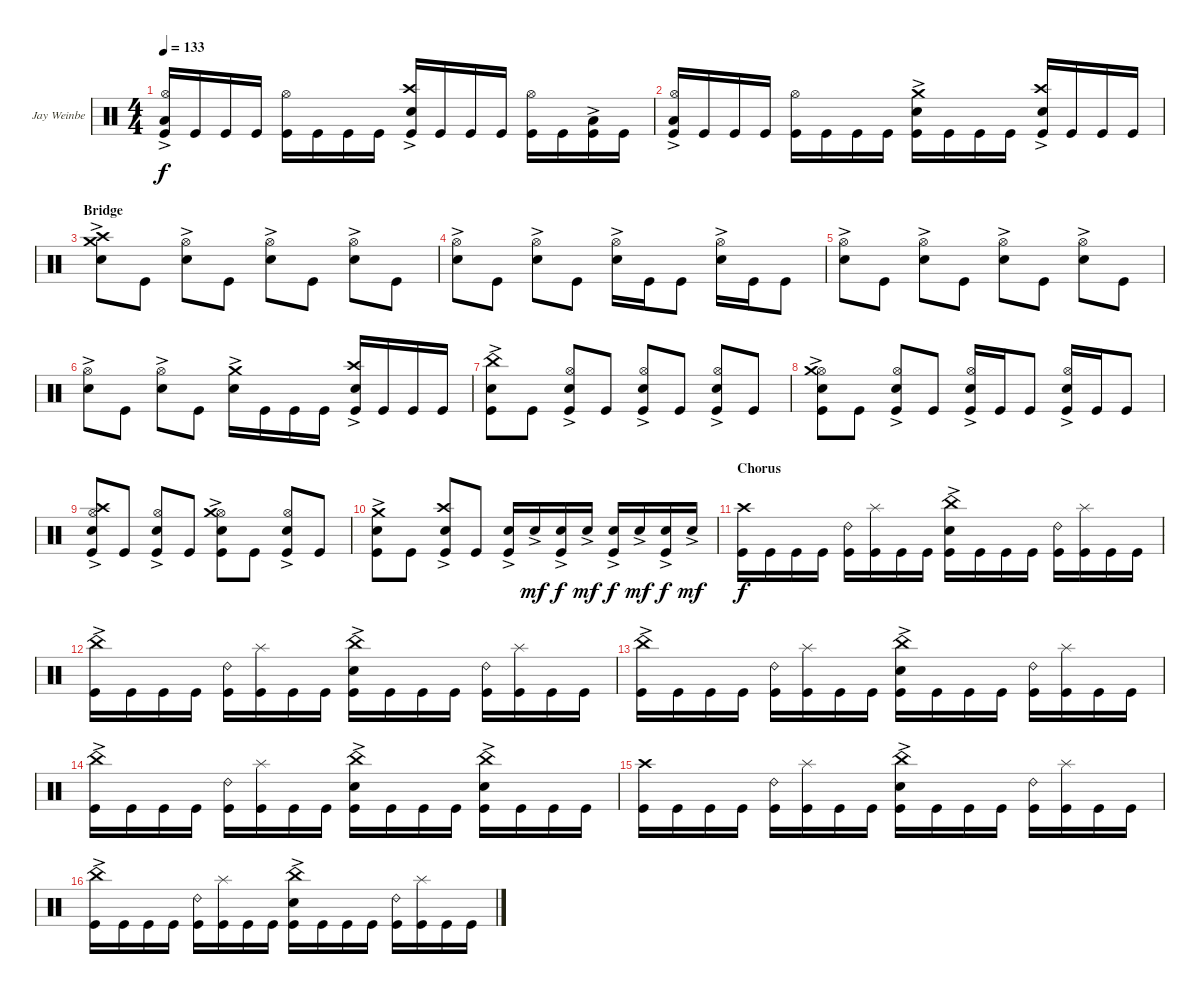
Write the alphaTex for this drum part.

\bracketExtendMode groupsimilarinstruments
\firstSystemTrackNameOrientation horizontal
\otherSystemsTrackNameOrientation horizontal
\track ("Jay Weinberg" "Jay Weinbe") {instrument percussion}
\staff {score}
\articulation defaults
\ts (4 4)
\tempo 133
\clef neutral
\ks c
("Kick (hit)" "Hi-Hat (open)" "Low Tom (hit)"{ac}).16{dy f} "Kick (hit)".16 "Kick (hit)".16 "Kick (hit)".16 ("Kick (hit)" "Hi-Hat (open)").16 "Kick (hit)".16 "Kick (hit)".16 "Kick (hit)".16 ("Kick (hit)" "Crash high (hit)" "Snare (hit) 2"{ac}).16 "Kick (hit)".16 "Kick (hit)".16 "Kick (hit)".16 ("Kick (hit)" "Hi-Hat (open)").16 "Kick (hit)".16 ("Kick (hit)" "Low Tom (hit)"{ac}).16 "Kick (hit)".16 |
("Kick (hit)" "Low Tom (hit)"{ac} "Hi-Hat (open)").16 "Kick (hit)".16 "Kick (hit)".16 "Kick (hit)".16 ("Kick (hit)" "Hi-Hat (open)").16 "Kick (hit)".16 "Kick (hit)".16 "Kick (hit)".16 ("Kick (hit)" "Snare (hit) 2"{ac} "Crash medium (hit)"{ac}).16 "Kick (hit)".16 "Kick (hit)".16 "Kick (hit)".16 ("Kick (hit)" "Snare (hit) 2"{ac} "Crash high (hit)").16 "Kick (hit)".16 "Kick (hit)".16 "Kick (hit)".16 |
\section ("" "Bridge")
("Snare (hit) 2"{ac} "Crash medium (hit)" "Crash high (hit)").8 "Kick (hit)".8 ("Snare (hit) 2"{ac} "Hi-Hat (open)").8 "Kick (hit)".8 ("Snare (hit) 2"{ac} "Hi-Hat (open)").8 "Kick (hit)".8 ("Snare (hit) 2"{ac} "Hi-Hat (open)").8 "Kick (hit)".8 |
("Snare (hit) 2"{ac} "Hi-Hat (open)").8 "Kick (hit)".8 ("Snare (hit) 2"{ac} "Hi-Hat (open)").8 "Kick (hit)".8 ("Snare (hit) 2"{ac} "Hi-Hat (open)").16 "Kick (hit)".16 "Kick (hit)".8 ("Snare (hit) 2"{ac} "Hi-Hat (open)").16 "Kick (hit)".16 "Kick (hit)".8 |
("Snare (hit) 2"{ac} "Hi-Hat (open)").8 "Kick (hit)".8 ("Snare (hit) 2"{ac} "Hi-Hat (open)").8 "Kick (hit)".8 ("Snare (hit) 2"{ac} "Hi-Hat (open)").8 "Kick (hit)".8 ("Snare (hit) 2"{ac} "Hi-Hat (open)").8 "Kick (hit)".8 |
("Snare (hit) 2"{ac} "Hi-Hat (open)").8 "Kick (hit)".8 ("Snare (hit) 2"{ac} "Hi-Hat (open)").8 "Kick (hit)".8 ("Snare (hit) 2"{ac} "Crash medium (hit)").16 "Kick (hit)".16 "Kick (hit)".16 "Kick (hit)".16 ("Snare (hit) 2"{ac} "Crash high (hit)" "Kick (hit)").16 "Kick (hit)".16 "Kick (hit)".16 "Kick (hit)".16 |
("China (hit)"{ac} "Snare (hit) 2"{ac} "Kick (hit)").8 "Kick (hit)".8 ("Snare (hit) 2"{ac} "Hi-Hat (open)" "Kick (hit)").8 "Kick (hit)".8 ("Snare (hit) 2"{ac} "Hi-Hat (open)" "Kick (hit)").8 "Kick (hit)".8 ("Snare (hit) 2"{ac} "Hi-Hat (open)" "Kick (hit)").8 "Kick (hit)".8 |
("Snare (hit) 2"{ac} "Hi-Hat (open)" "Crash medium (hit)"{ac} "Kick (hit)").8 "Kick (hit)".8 ("Snare (hit) 2"{ac} "Hi-Hat (open)" "Kick (hit)").8 "Kick (hit)".8 ("Snare (hit) 2"{ac} "Hi-Hat (open)" "Kick (hit)").16 "Kick (hit)".16 "Kick (hit)".8 ("Snare (hit) 2"{ac} "Hi-Hat (open)" "Kick (hit)").16 "Kick (hit)".16 "Kick (hit)".8 |
("Snare (hit) 2"{ac} "Hi-Hat (open)" "Crash high (hit)" "Kick (hit)").8 "Kick (hit)".8 ("Snare (hit) 2"{ac} "Hi-Hat (open)" "Kick (hit)").8 "Kick (hit)".8 ("Snare (hit) 2"{ac} "Hi-Hat (open)" "Kick (hit)" "Crash medium (hit)").8 "Kick (hit)".8 ("Snare (hit) 2"{ac} "Hi-Hat (open)" "Kick (hit)").8 "Kick (hit)".8 |
("Kick (hit)" "Snare (hit) 2"{ac} "Crash medium (hit)").8 "Kick (hit)".8 ("Kick (hit)" "Snare (hit) 2"{ac} "Crash high (hit)").8 "Kick (hit)".8 ("Kick (hit)" "Snare (hit) 2"{ac}).16 "Snare (hit) 2"{ac}.16{dy mf} ("Snare (hit) 2"{ac} "Kick (hit)").16{dy f} "Snare (hit) 2"{ac}.16{dy mf} ("Snare (hit) 2"{ac} "Kick (hit)").16{dy f} "Snare (hit) 2"{ac}.16{dy mf} ("Snare (hit) 2"{ac} "Kick (hit)").16{dy f} "Snare (hit) 2"{ac}.16{dy mf} |
\section ("" "Chorus")
("Kick (hit)" "Crash high (hit)").16{dy f} "Kick (hit)".16 "Kick (hit)".16 "Kick (hit)".16 ("Kick (hit)" "Ride (bell) 2").16 ("Kick (hit)" "Splash (hit)").16 "Kick (hit)".16 "Kick (hit)".16 ("Kick (hit)" "Snare (hit) 2"{ac} "China (hit)"{ac}).16 "Kick (hit)".16 "Kick (hit)".16 "Kick (hit)".16 ("Kick (hit)" "Ride (bell) 2").16 ("Kick (hit)" "Splash (hit)").16 "Kick (hit)".16 "Kick (hit)".16 |
("Kick (hit)" "China (hit)"{ac}).16 "Kick (hit)".16 "Kick (hit)".16 "Kick (hit)".16 ("Kick (hit)" "Ride (bell) 2").16 ("Kick (hit)" "Splash (hit)").16 "Kick (hit)".16 "Kick (hit)".16 ("Kick (hit)" "Snare (hit) 2"{ac} "China (hit)"{ac}).16 "Kick (hit)".16 "Kick (hit)".16 "Kick (hit)".16 ("Kick (hit)" "Ride (bell) 2").16 ("Kick (hit)" "Splash (hit)").16 "Kick (hit)".16 "Kick (hit)".16 |
("Kick (hit)" "China (hit)"{ac}).16 "Kick (hit)".16 "Kick (hit)".16 "Kick (hit)".16 ("Kick (hit)" "Ride (bell) 2").16 ("Kick (hit)" "Splash (hit)").16 "Kick (hit)".16 "Kick (hit)".16 ("Kick (hit)" "Snare (hit) 2"{ac} "China (hit)"{ac}).16 "Kick (hit)".16 "Kick (hit)".16 "Kick (hit)".16 ("Kick (hit)" "Ride (bell) 2").16 ("Kick (hit)" "Splash (hit)").16 "Kick (hit)".16 "Kick (hit)".16 |
("Kick (hit)" "China (hit)"{ac}).16 "Kick (hit)".16 "Kick (hit)".16 "Kick (hit)".16 ("Kick (hit)" "Ride (bell) 2").16 ("Kick (hit)" "Splash (hit)").16 "Kick (hit)".16 "Kick (hit)".16 ("Kick (hit)" "Snare (hit) 2"{ac} "China (hit)"{ac}).16 "Kick (hit)".16 "Kick (hit)".16 "Kick (hit)".16 ("Kick (hit)" "Snare (hit) 2"{ac} "China (hit)"{ac}).16 "Kick (hit)".16 "Kick (hit)".16 "Kick (hit)".16 |
("Kick (hit)" "Crash high (hit)").16 "Kick (hit)".16 "Kick (hit)".16 "Kick (hit)".16 ("Kick (hit)" "Ride (bell) 2").16 ("Kick (hit)" "Splash (hit)").16 "Kick (hit)".16 "Kick (hit)".16 ("Kick (hit)" "Snare (hit) 2"{ac} "China (hit)"{ac}).16 "Kick (hit)".16 "Kick (hit)".16 "Kick (hit)".16 ("Kick (hit)" "Ride (bell) 2").16 ("Kick (hit)" "Splash (hit)").16 "Kick (hit)".16 "Kick (hit)".16 |
("Kick (hit)" "China (hit)"{ac}).16 "Kick (hit)".16 "Kick (hit)".16 "Kick (hit)".16 ("Kick (hit)" "Ride (bell) 2").16 ("Kick (hit)" "Splash (hit)").16 "Kick (hit)".16 "Kick (hit)".16 ("Kick (hit)" "Snare (hit) 2"{ac} "China (hit)"{ac}).16 "Kick (hit)".16 "Kick (hit)".16 "Kick (hit)".16 ("Kick (hit)" "Ride (bell) 2").16 ("Kick (hit)" "Splash (hit)").16 "Kick (hit)".16 "Kick (hit)".16
